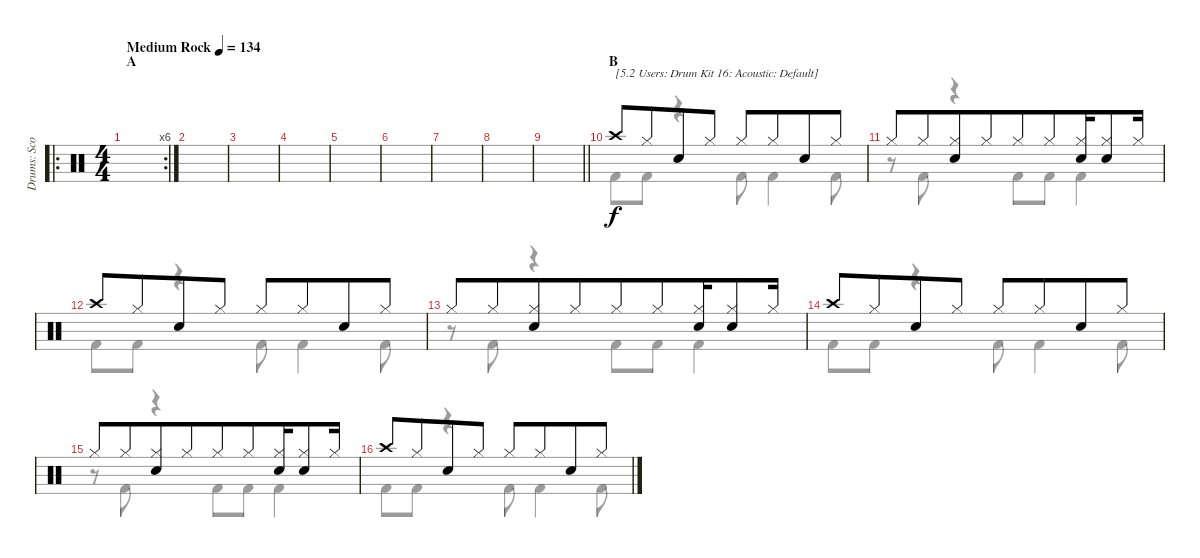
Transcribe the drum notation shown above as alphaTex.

\track ("Drums: Scott" "Drums: Sco") {instrument percussion}
\staff {score}
\articulation defaults
\voice
\ro
\rc 6
\ts (4 4)
\section ("" "A")
\tempo (134 "Medium Rock")
\clef neutral
\ks c
|
|
|
|
|
|
|
|
\barLineRight lightlight
|
\section ("" "B")
"Crash high (hit)".8{txt "[5.2 Users: Drum Kit 16: Acoustic: Default]"} "Hi-Hat (closed)".8{beam merge} "Snare (hit) 2".8 "Hi-Hat (closed)".8 "Hi-Hat (closed)".8 "Hi-Hat (closed)".8{beam merge} "Snare (hit) 2".8 "Hi-Hat (closed)".8 |
"Hi-Hat (closed)".8 "Hi-Hat (closed)".8{beam merge} ("Hi-Hat (closed)" "Snare (hit) 2").8 "Hi-Hat (closed)".8{beam merge} "Hi-Hat (closed)".8 "Hi-Hat (closed)".8{beam merge} ("Hi-Hat (closed)" "Snare (hit) 2").16 ("Hi-Hat (closed)" "Snare (hit) 2").8 "Hi-Hat (closed)".16 |
"Crash high (hit)".8 "Hi-Hat (closed)".8{beam merge} "Snare (hit) 2".8 "Hi-Hat (closed)".8 "Hi-Hat (closed)".8 "Hi-Hat (closed)".8{beam merge} "Snare (hit) 2".8 "Hi-Hat (closed)".8 |
"Hi-Hat (closed)".8 "Hi-Hat (closed)".8{beam merge} ("Hi-Hat (closed)" "Snare (hit) 2").8 "Hi-Hat (closed)".8{beam merge} "Hi-Hat (closed)".8 "Hi-Hat (closed)".8{beam merge} ("Hi-Hat (closed)" "Snare (hit) 2").16 ("Hi-Hat (closed)" "Snare (hit) 2").8 "Hi-Hat (closed)".16 |
"Crash high (hit)".8 "Hi-Hat (closed)".8{beam merge} "Snare (hit) 2".8 "Hi-Hat (closed)".8 "Hi-Hat (closed)".8 "Hi-Hat (closed)".8{beam merge} "Snare (hit) 2".8 "Hi-Hat (closed)".8 |
"Hi-Hat (closed)".8 "Hi-Hat (closed)".8{beam merge} ("Hi-Hat (closed)" "Snare (hit) 2").8 "Hi-Hat (closed)".8{beam merge} "Hi-Hat (closed)".8 "Hi-Hat (closed)".8{beam merge} ("Hi-Hat (closed)" "Snare (hit) 2").16 ("Hi-Hat (closed)" "Snare (hit) 2").8 "Hi-Hat (closed)".16 |
"Crash high (hit)".8 "Hi-Hat (closed)".8{beam merge} "Snare (hit) 2".8 "Hi-Hat (closed)".8 "Hi-Hat (closed)".8 "Hi-Hat (closed)".8{beam merge} "Snare (hit) 2".8 "Hi-Hat (closed)".8
\voice
\clef neutral
\ottava regular
\simile none
\ks c
|
|
|
|
|
|
|
|
\barLineRight lightlight
|
"Kick (hit) 2".8 "Kick (hit) 2".8 r.4 "Kick (hit) 2".8 "Kick (hit) 2".4 "Kick (hit) 2".8 |
r.8 "Kick (hit) 2".8 r.4 "Kick (hit) 2".8 "Kick (hit) 2".8 "Kick (hit) 2".4 |
"Kick (hit) 2".8 "Kick (hit) 2".8 r.4 "Kick (hit) 2".8 "Kick (hit) 2".4 "Kick (hit) 2".8 |
r.8 "Kick (hit) 2".8 r.4 "Kick (hit) 2".8 "Kick (hit) 2".8 "Kick (hit) 2".4 |
"Kick (hit) 2".8 "Kick (hit) 2".8 r.4 "Kick (hit) 2".8 "Kick (hit) 2".4 "Kick (hit) 2".8 |
r.8 "Kick (hit) 2".8 r.4 "Kick (hit) 2".8 "Kick (hit) 2".8 "Kick (hit) 2".4 |
"Kick (hit) 2".8 "Kick (hit) 2".8 r.4 "Kick (hit) 2".8 "Kick (hit) 2".4 "Kick (hit) 2".8
